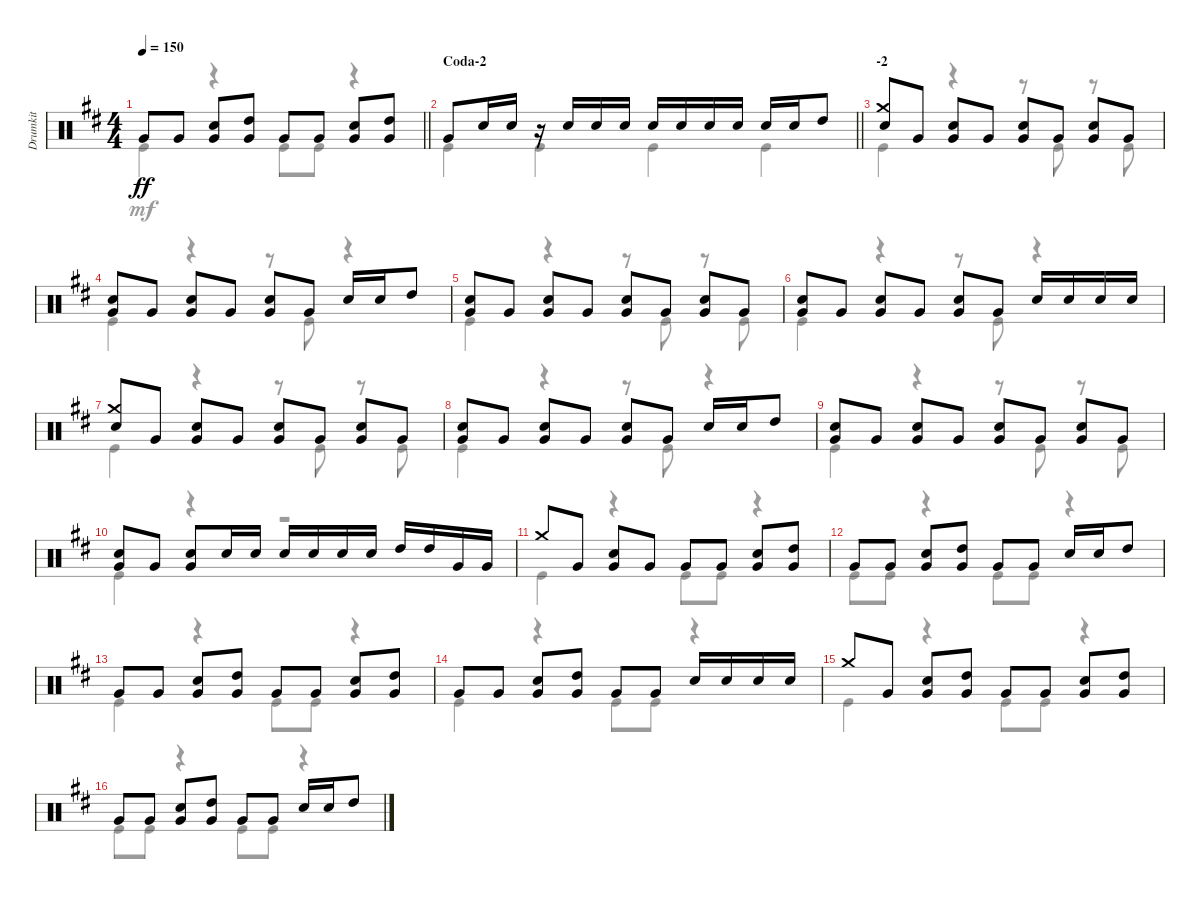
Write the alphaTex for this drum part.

\track ("Drumkit" "Drumkit") {instrument percussion}
\staff {score}
\articulation defaults
\voice
\ts (4 4)
\tempo 150
\clef neutral
\barLineRight lightlight
\ks d "Very Low Tom (hit)".8{dy ff} "Very Low Tom (hit)".8
("Very Low Tom (hit)" "Snare (hit) 2").8 ("Very Low Tom (hit)" "High Tom (hit)").8 "Very Low Tom (hit)".8 "Very Low Tom (hit)".8 ("Very Low Tom (hit)" "Snare (hit) 2").8 ("Very Low Tom (hit)" "High Tom (hit)").8 |
\section ("" "Coda-2")
\barLineRight lightlight "Very Low Tom (hit)".8 "Snare (hit) 2".16 "Snare (hit) 2".16
r.16 "Snare (hit) 2".16 "Snare (hit) 2".16 "Snare (hit) 2".16 "Snare (hit) 2".16 "Snare (hit) 2".16 "Snare (hit) 2".16 "Snare (hit) 2".16 "Snare (hit) 2".16 "Snare (hit) 2".16 "High Tom (hit)".8 |
\section ("" "-2")
("Snare (hit) 2" "Crash medium (hit)").8 "Very Low Tom (hit)".8 ("Very Low Tom (hit)" "Snare (hit) 2").8 "Very Low Tom (hit)".8 ("Very Low Tom (hit)" "Snare (hit) 2").8 "Very Low Tom (hit)".8 ("Very Low Tom (hit)" "Snare (hit) 2").8 "Very Low Tom (hit)".8 |
("Very Low Tom (hit)" "Snare (hit) 2").8 "Very Low Tom (hit)".8 ("Very Low Tom (hit)" "Snare (hit) 2").8 "Very Low Tom (hit)".8 ("Very Low Tom (hit)" "Snare (hit) 2").8 "Very Low Tom (hit)".8 "Snare (hit) 2".16 "Snare (hit) 2".16 "High Tom (hit)".8 |
("Snare (hit) 2" "Very Low Tom (hit)").8 "Very Low Tom (hit)".8 ("Snare (hit) 2" "Very Low Tom (hit)").8 "Very Low Tom (hit)".8 ("Very Low Tom (hit)" "Snare (hit) 2").8 "Very Low Tom (hit)".8 ("Very Low Tom (hit)" "Snare (hit) 2").8 "Very Low Tom (hit)".8 |
("Snare (hit) 2" "Very Low Tom (hit)").8 "Very Low Tom (hit)".8 ("Very Low Tom (hit)" "Snare (hit) 2").8 "Very Low Tom (hit)".8 ("Very Low Tom (hit)" "Snare (hit) 2").8 "Very Low Tom (hit)".8 "Snare (hit) 2".16 "Snare (hit) 2".16 "Snare (hit) 2".16 "Snare (hit) 2".16 |
("Snare (hit) 2" "Crash medium (hit)").8 "Very Low Tom (hit)".8 ("Very Low Tom (hit)" "Snare (hit) 2").8 "Very Low Tom (hit)".8 ("Very Low Tom (hit)" "Snare (hit) 2").8 "Very Low Tom (hit)".8 ("Very Low Tom (hit)" "Snare (hit) 2").8 "Very Low Tom (hit)".8 |
("Snare (hit) 2" "Very Low Tom (hit)").8 "Very Low Tom (hit)".8 ("Very Low Tom (hit)" "Snare (hit) 2").8 "Very Low Tom (hit)".8 ("Very Low Tom (hit)" "Snare (hit) 2").8 "Very Low Tom (hit)".8 "Snare (hit) 2".16 "Snare (hit) 2".16 "High Tom (hit)".8 |
("Snare (hit) 2" "Very Low Tom (hit)").8 "Very Low Tom (hit)".8 ("Very Low Tom (hit)" "Snare (hit) 2").8 "Very Low Tom (hit)".8 ("Very Low Tom (hit)" "Snare (hit) 2").8 "Very Low Tom (hit)".8 ("Very Low Tom (hit)" "Snare (hit) 2").8 "Very Low Tom (hit)".8 |
("Snare (hit) 2" "Very Low Tom (hit)").8 "Very Low Tom (hit)".8 ("Very Low Tom (hit)" "Snare (hit) 2").8 "Snare (hit) 2".16 "Snare (hit) 2".16 "Snare (hit) 2".16 "Snare (hit) 2".16 "Snare (hit) 2".16 "Snare (hit) 2".16 "High Tom (hit)".16 "High Tom (hit)".16 "Very Low Tom (hit)".16 "Very Low Tom (hit)".16 |
"Crash medium (hit)".8 "Very Low Tom (hit)".8 ("Very Low Tom (hit)" "Snare (hit) 2").8 "Very Low Tom (hit)".8 "Very Low Tom (hit)".8 "Very Low Tom (hit)".8 ("Snare (hit) 2" "Very Low Tom (hit)").8 ("Very Low Tom (hit)" "High Tom (hit)").8 |
"Very Low Tom (hit)".8 "Very Low Tom (hit)".8 ("Very Low Tom (hit)" "Snare (hit) 2").8 ("Very Low Tom (hit)" "High Tom (hit)").8 "Very Low Tom (hit)".8 "Very Low Tom (hit)".8 "Snare (hit) 2".16 "Snare (hit) 2".16 "High Tom (hit)".8 |
"Very Low Tom (hit)".8 "Very Low Tom (hit)".8 ("Very Low Tom (hit)" "Snare (hit) 2").8 ("Very Low Tom (hit)" "High Tom (hit)").8 "Very Low Tom (hit)".8 "Very Low Tom (hit)".8 ("Very Low Tom (hit)" "Snare (hit) 2").8 ("Very Low Tom (hit)" "High Tom (hit)").8 |
"Very Low Tom (hit)".8 "Very Low Tom (hit)".8 ("Very Low Tom (hit)" "Snare (hit) 2").8 ("Very Low Tom (hit)" "High Tom (hit)").8 "Very Low Tom (hit)".8 "Very Low Tom (hit)".8 "Snare (hit) 2".16 "Snare (hit) 2".16 "Snare (hit) 2".16 "Snare (hit) 2".16 |
"Crash medium (hit)".8 "Very Low Tom (hit)".8 ("Very Low Tom (hit)" "Snare (hit) 2").8 ("Very Low Tom (hit)" "High Tom (hit)").8 "Very Low Tom (hit)".8 "Very Low Tom (hit)".8 ("Very Low Tom (hit)" "Snare (hit) 2").8 ("Very Low Tom (hit)" "High Tom (hit)").8 |
"Very Low Tom (hit)".8 "Very Low Tom (hit)".8 ("Very Low Tom (hit)" "Snare (hit) 2").8 ("Very Low Tom (hit)" "High Tom (hit)").8 "Very Low Tom (hit)".8 "Very Low Tom (hit)".8 "Snare (hit) 2".16 "Snare (hit) 2".16 "High Tom (hit)".8
\voice
\clef neutral
\ottava regular
\simile none
\barLineRight lightlight
\ks d "Kick (hit)".4{dy mf}
r.4 "Kick (hit)".8 "Kick (hit)".8 r.4 |
\barLineRight lightlight "Kick (hit)".4 "Kick (hit)".4 "Kick (hit)".4 "Kick (hit)".4
|
"Kick (hit)".4 r.4 r.8 "Kick (hit)".8 r.8 "Kick (hit)".8 |
"Kick (hit)".4 r.4 r.8 "Kick (hit)".8 r.4 |
"Kick (hit)".4 r.4 r.8 "Kick (hit)".8 r.8 "Kick (hit)".8 |
"Kick (hit)".4 r.4 r.8 "Kick (hit)".8 r.4 |
"Kick (hit)".4 r.4 r.8 "Kick (hit)".8 r.8 "Kick (hit)".8 |
"Kick (hit)".4 r.4 r.8 "Kick (hit)".8 r.4 |
"Kick (hit)".4 r.4 r.8 "Kick (hit)".8 r.8 "Kick (hit)".8 |
"Kick (hit)".4 r.4 r.2 |
"Kick (hit)".4 r.4 "Kick (hit)".8 "Kick (hit)".8 r.4 |
"Kick (hit)".8 "Kick (hit)".8 r.4 "Kick (hit)".8 "Kick (hit)".8 r.4 |
"Kick (hit)".4 r.4 "Kick (hit)".8 "Kick (hit)".8 r.4 |
"Kick (hit)".4 r.4 "Kick (hit)".8 "Kick (hit)".8 r.4 |
"Kick (hit)".4 r.4 "Kick (hit)".8 "Kick (hit)".8 r.4 |
"Kick (hit)".8 "Kick (hit)".8 r.4 "Kick (hit)".8 "Kick (hit)".8 r.4
